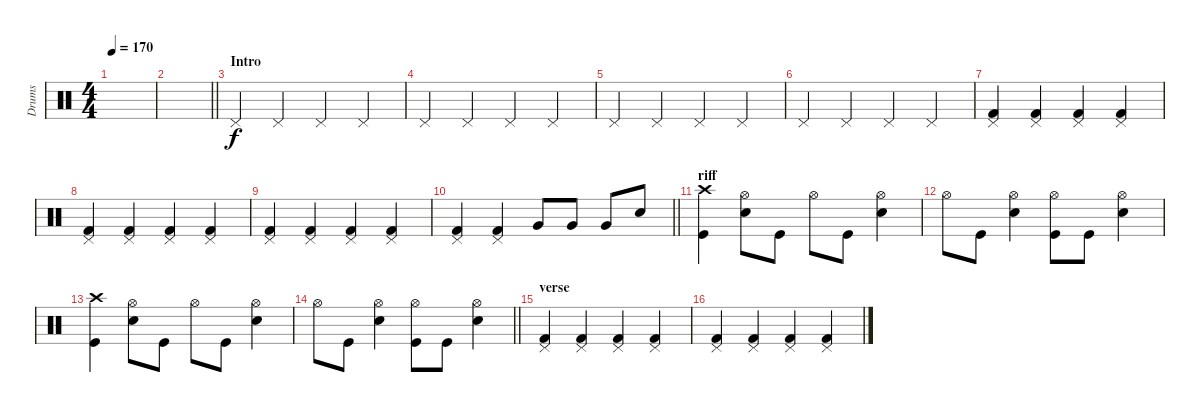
\track ("Drums" "Drums") {instrument percussion}
\staff {score}
\articulation defaults
\ts (4 4)
\tempo 170
\clef neutral
\ks c
|
\barLineRight lightlight
|
\section ("" "Intro")
"Pedal Hi-Hat (hit)".4 "Pedal Hi-Hat (hit)".4 "Pedal Hi-Hat (hit)".4 "Pedal Hi-Hat (hit)".4 |
"Pedal Hi-Hat (hit)".4 "Pedal Hi-Hat (hit)".4 "Pedal Hi-Hat (hit)".4 "Pedal Hi-Hat (hit)".4 |
"Pedal Hi-Hat (hit)".4 "Pedal Hi-Hat (hit)".4 "Pedal Hi-Hat (hit)".4 "Pedal Hi-Hat (hit)".4 |
"Pedal Hi-Hat (hit)".4 "Pedal Hi-Hat (hit)".4 "Pedal Hi-Hat (hit)".4 "Pedal Hi-Hat (hit)".4 |
("Kick (hit) 2" "Pedal Hi-Hat (hit)").4 ("Kick (hit) 2" "Pedal Hi-Hat (hit)").4 ("Kick (hit) 2" "Pedal Hi-Hat (hit)").4 ("Kick (hit) 2" "Pedal Hi-Hat (hit)").4 |
("Kick (hit) 2" "Pedal Hi-Hat (hit)").4 ("Kick (hit) 2" "Pedal Hi-Hat (hit)").4 ("Kick (hit) 2" "Pedal Hi-Hat (hit)").4 ("Kick (hit) 2" "Pedal Hi-Hat (hit)").4 |
("Kick (hit) 2" "Pedal Hi-Hat (hit)").4 ("Kick (hit) 2" "Pedal Hi-Hat (hit)").4 ("Kick (hit) 2" "Pedal Hi-Hat (hit)").4 ("Kick (hit) 2" "Pedal Hi-Hat (hit)").4 |
\barLineRight lightlight
("Kick (hit) 2" "Pedal Hi-Hat (hit)").4 ("Kick (hit) 2" "Pedal Hi-Hat (hit)").4 "Very Low Tom (hit)".8 "Very Low Tom (hit)".8 "Very Low Tom (hit)".8 "Snare (hit) 2".8 |
\section ("" "riff")
("Crash high (hit)" "Kick (hit)").4 ("Snare (hit) 2" "Hi-Hat (open)").8 "Kick (hit)".8 "Hi-Hat (open)".8 "Kick (hit)".8 ("Snare (hit) 2" "Hi-Hat (open)").4 |
"Hi-Hat (open)".8 "Kick (hit)".8 ("Snare (hit) 2" "Hi-Hat (open)").4 ("Hi-Hat (open)" "Kick (hit)").8 "Kick (hit)".8 ("Snare (hit) 2" "Hi-Hat (open)").4 |
("Crash high (hit)" "Kick (hit)").4 ("Snare (hit) 2" "Hi-Hat (open)").8 "Kick (hit)".8 "Hi-Hat (open)".8 "Kick (hit)".8 ("Snare (hit) 2" "Hi-Hat (open)").4 |
\barLineRight lightlight "Hi-Hat (open)".8 "Kick (hit)".8
("Snare (hit) 2" "Hi-Hat (open)").4 ("Hi-Hat (open)" "Kick (hit)").8 "Kick (hit)".8 ("Snare (hit) 2" "Hi-Hat (open)").4 |
\section ("" "verse")
("Kick (hit) 2" "Pedal Hi-Hat (hit)").4 ("Kick (hit) 2" "Pedal Hi-Hat (hit)").4 ("Kick (hit) 2" "Pedal Hi-Hat (hit)").4 ("Kick (hit) 2" "Pedal Hi-Hat (hit)").4 |
("Kick (hit) 2" "Pedal Hi-Hat (hit)").4 ("Kick (hit) 2" "Pedal Hi-Hat (hit)").4 ("Kick (hit) 2" "Pedal Hi-Hat (hit)").4 ("Kick (hit) 2" "Pedal Hi-Hat (hit)").4
